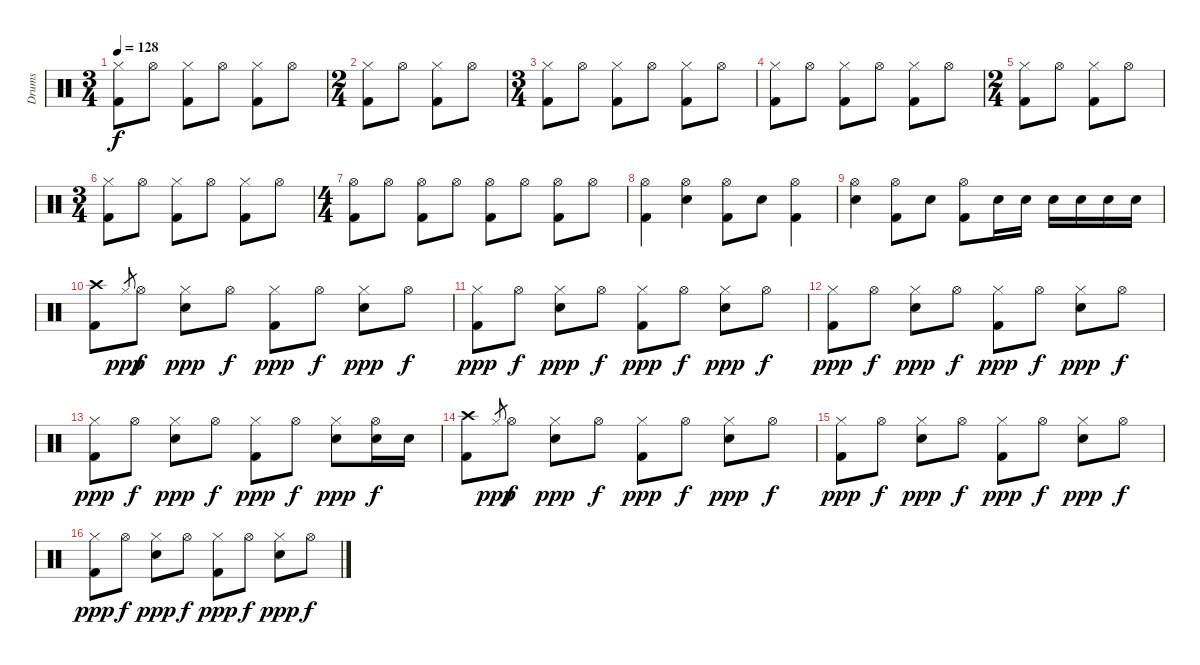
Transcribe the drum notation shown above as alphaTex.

\track ("Drums" "Drums") {instrument percussion}
\staff {score}
\articulation defaults
\ts (3 4)
\tempo 128
\clef neutral
\ks c
("Hi-Hat (closed)" "Kick (hit) 2").8{dy f} "Hi-Hat (open)".8 ("Hi-Hat (closed)" "Kick (hit) 2").8 "Hi-Hat (open)".8 ("Hi-Hat (closed)" "Kick (hit) 2").8 "Hi-Hat (open)".8 |
\ts (2 4)
("Hi-Hat (closed)" "Kick (hit) 2").8 "Hi-Hat (open)".8 ("Hi-Hat (closed)" "Kick (hit) 2").8 "Hi-Hat (open)".8 |
\ts (3 4)
("Hi-Hat (closed)" "Kick (hit) 2").8 "Hi-Hat (open)".8 ("Hi-Hat (closed)" "Kick (hit) 2").8 "Hi-Hat (open)".8 ("Hi-Hat (closed)" "Kick (hit) 2").8 "Hi-Hat (open)".8 |
("Hi-Hat (closed)" "Kick (hit) 2").8 "Hi-Hat (open)".8 ("Hi-Hat (closed)" "Kick (hit) 2").8 "Hi-Hat (open)".8 ("Hi-Hat (closed)" "Kick (hit) 2").8 "Hi-Hat (open)".8 |
\ts (2 4)
("Hi-Hat (closed)" "Kick (hit) 2").8 "Hi-Hat (open)".8 ("Hi-Hat (closed)" "Kick (hit) 2").8 "Hi-Hat (open)".8 |
\ts (3 4)
("Hi-Hat (closed)" "Kick (hit) 2").8 "Hi-Hat (open)".8 ("Hi-Hat (closed)" "Kick (hit) 2").8 "Hi-Hat (open)".8 ("Hi-Hat (closed)" "Kick (hit) 2").8 "Hi-Hat (open)".8 |
\ts (4 4)
("Hi-Hat (open)" "Kick (hit) 2").8 "Hi-Hat (open)".8 ("Hi-Hat (open)" "Kick (hit) 2").8 "Hi-Hat (open)".8 ("Hi-Hat (open)" "Kick (hit) 2").8 "Hi-Hat (open)".8 ("Hi-Hat (open)" "Kick (hit) 2").8 "Hi-Hat (open)".8 |
("Hi-Hat (open)" "Kick (hit) 2").4 ("Hi-Hat (open)" "Snare (hit) 2").4 ("Hi-Hat (open)" "Kick (hit) 2").8 "Snare (hit) 2".8 ("Hi-Hat (open)" "Kick (hit) 2").4 |
("Hi-Hat (open)" "Snare (hit) 2").4 ("Hi-Hat (open)" "Kick (hit) 2").8 "Snare (hit) 2".8 ("Hi-Hat (open)" "Kick (hit) 2").8 "Snare (hit) 2".16 "Snare (hit) 2".16 "Snare (hit) 2".16 "Snare (hit) 2".16 "Snare (hit) 2".16 "Snare (hit) 2".16 |
("Crash high (hit)" "Kick (hit) 2").8 "Hi-Hat (closed)".8{gr dy ppp} "Hi-Hat (open)".8{dy f} ("Hi-Hat (closed)" "Snare (hit) 2").8{dy ppp} "Hi-Hat (open)".8{dy f} ("Hi-Hat (closed)" "Kick (hit) 2").8{dy ppp} "Hi-Hat (open)".8{dy f} ("Hi-Hat (closed)" "Snare (hit) 2").8{dy ppp} "Hi-Hat (open)".8{dy f} |
("Hi-Hat (closed)" "Kick (hit) 2").8{dy ppp} "Hi-Hat (open)".8{dy f} ("Hi-Hat (closed)" "Snare (hit) 2").8{dy ppp} "Hi-Hat (open)".8{dy f} ("Hi-Hat (closed)" "Kick (hit) 2").8{dy ppp} "Hi-Hat (open)".8{dy f} ("Hi-Hat (closed)" "Snare (hit) 2").8{dy ppp} "Hi-Hat (open)".8{dy f} |
("Hi-Hat (closed)" "Kick (hit) 2").8{dy ppp} "Hi-Hat (open)".8{dy f} ("Hi-Hat (closed)" "Snare (hit) 2").8{dy ppp} "Hi-Hat (open)".8{dy f} ("Hi-Hat (closed)" "Kick (hit) 2").8{dy ppp} "Hi-Hat (open)".8{dy f} ("Hi-Hat (closed)" "Snare (hit) 2").8{dy ppp} "Hi-Hat (open)".8{dy f} |
("Hi-Hat (closed)" "Kick (hit) 2").8{dy ppp} "Hi-Hat (open)".8{dy f} ("Hi-Hat (closed)" "Snare (hit) 2").8{dy ppp} "Hi-Hat (open)".8{dy f} ("Hi-Hat (closed)" "Kick (hit) 2").8{dy ppp} "Hi-Hat (open)".8{dy f} ("Hi-Hat (closed)" "Snare (hit) 2").8{dy ppp} ("Hi-Hat (open)" "Snare (hit) 2").16{dy f} "Snare (hit) 2".16 |
("Crash high (hit)" "Kick (hit) 2").8 "Hi-Hat (closed)".8{gr dy ppp} "Hi-Hat (open)".8{dy f} ("Hi-Hat (closed)" "Snare (hit) 2").8{dy ppp} "Hi-Hat (open)".8{dy f} ("Hi-Hat (closed)" "Kick (hit) 2").8{dy ppp} "Hi-Hat (open)".8{dy f} ("Hi-Hat (closed)" "Snare (hit) 2").8{dy ppp} "Hi-Hat (open)".8{dy f} |
("Hi-Hat (closed)" "Kick (hit) 2").8{dy ppp} "Hi-Hat (open)".8{dy f} ("Hi-Hat (closed)" "Snare (hit) 2").8{dy ppp} "Hi-Hat (open)".8{dy f} ("Hi-Hat (closed)" "Kick (hit) 2").8{dy ppp} "Hi-Hat (open)".8{dy f} ("Hi-Hat (closed)" "Snare (hit) 2").8{dy ppp} "Hi-Hat (open)".8{dy f} |
("Hi-Hat (closed)" "Kick (hit) 2").8{dy ppp} "Hi-Hat (open)".8{dy f} ("Hi-Hat (closed)" "Snare (hit) 2").8{dy ppp} "Hi-Hat (open)".8{dy f} ("Hi-Hat (closed)" "Kick (hit) 2").8{dy ppp} "Hi-Hat (open)".8{dy f} ("Hi-Hat (closed)" "Snare (hit) 2").8{dy ppp} "Hi-Hat (open)".8{dy f}
